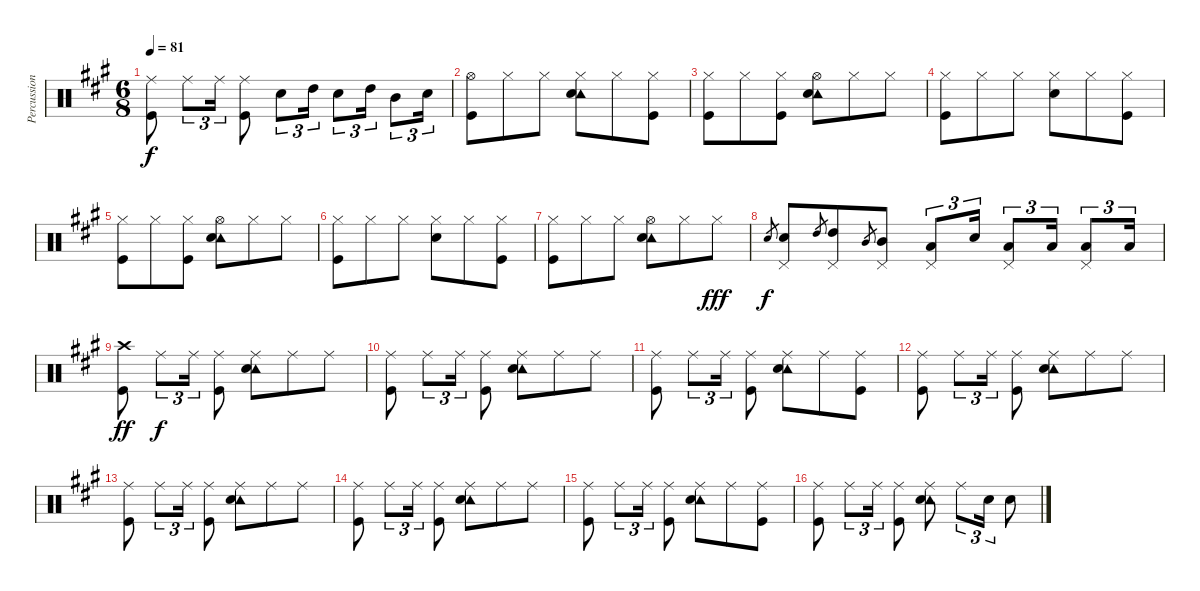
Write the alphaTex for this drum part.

\track ("Percussion" "Percussion") {instrument percussion}
\staff {score}
\articulation defaults
\ts (6 8)
\tempo 81
\clef neutral
\ks a
("Ride (middle)" "Kick (hit)").8{dy f} "Ride (middle)".8{tu (3 2)} "Ride (middle)".16{tu (3 2)} ("Ride (middle)" "Kick (hit)").8 "Snare (hit) 2".8{tu (3 2)} "High Tom (hit)".16{tu (3 2)} "Snare (hit) 2".8{tu (3 2)} "High Tom (hit)".16{tu (3 2)} "Mid Tom (hit)".8{tu (3 2)} "Snare (hit) 2".16{tu (3 2)} |
("Hi-Hat (open)" "Kick (hit)").8 "Hi-Hat (closed)".8 "Hi-Hat (closed)".8 ("Hi-Hat (closed)" "Tambourine (hit)" "Snare (hit) 2").8 "Hi-Hat (closed)".8 ("Hi-Hat (closed)" "Kick (hit)").8 |
("Hi-Hat (closed)" "Kick (hit)").8 "Hi-Hat (closed)".8 ("Hi-Hat (closed)" "Kick (hit)").8 ("Hi-Hat (open)" "Tambourine (hit)" "Snare (hit) 2").8 "Hi-Hat (closed)".8 "Hi-Hat (closed)".8 |
("Hi-Hat (closed)" "Kick (hit)").8 "Hi-Hat (closed)".8 "Hi-Hat (closed)".8 ("Hi-Hat (closed)" "Snare (hit) 2").8 "Hi-Hat (closed)".8 ("Hi-Hat (closed)" "Kick (hit)").8 |
("Hi-Hat (closed)" "Kick (hit)").8 "Hi-Hat (closed)".8 ("Hi-Hat (closed)" "Kick (hit)").8 ("Hi-Hat (open)" "Tambourine (hit)" "Snare (hit) 2").8 "Hi-Hat (closed)".8 "Hi-Hat (closed)".8 |
("Hi-Hat (closed)" "Kick (hit)").8 "Hi-Hat (closed)".8 "Hi-Hat (closed)".8 ("Hi-Hat (closed)" "Snare (hit) 2").8 "Hi-Hat (closed)".8 ("Hi-Hat (closed)" "Kick (hit)").8 |
("Hi-Hat (closed)" "Kick (hit)").8 "Hi-Hat (closed)".8 "Hi-Hat (closed)".8 ("Hi-Hat (open)" "Tambourine (hit)" "Snare (hit) 2").8 "Hi-Hat (closed)".8 "Hi-Hat (closed)".8{dy fff} |
"Snare (hit) 2".8{gr dy f} ("Pedal Hi-Hat (hit)" "Snare (hit) 2").8 "High Tom (hit)".8{gr} ("Pedal Hi-Hat (hit)" "High Tom (hit)").8 "Mid Tom (hit)".8{gr} ("Pedal Hi-Hat (hit)" "Mid Tom (hit)").8 ("Pedal Hi-Hat (hit)" "Low Tom (hit)").8{tu (3 2)} "Snare (hit) 2".16{tu (3 2)} ("Pedal Hi-Hat (hit)" "Low Tom (hit)").8{tu (3 2)} "Low Tom (hit)".16{tu (3 2)} ("Pedal Hi-Hat (hit)" "Low Floor Tom (hit)").8{tu (3 2)} "Low Floor Tom (hit)".16{tu (3 2)} |
("Crash high (hit)" "Kick (hit)").8{dy ff} "Ride (middle)".8{tu (3 2) dy f} "Ride (middle)".16{tu (3 2)} ("Ride (middle)" "Kick (hit)").8 ("Ride (middle)" "Tambourine (hit)" "Snare (hit) 2").8 "Ride (middle)".8 "Ride (middle)".8 |
("Ride (middle)" "Kick (hit)").8 "Ride (middle)".8{tu (3 2)} "Ride (middle)".16{tu (3 2)} ("Ride (middle)" "Kick (hit)").8 ("Ride (middle)" "Tambourine (hit)" "Snare (hit) 2").8 "Ride (middle)".8 "Ride (middle)".8 |
("Ride (middle)" "Kick (hit)").8 "Ride (middle)".8{tu (3 2)} "Ride (middle)".16{tu (3 2)} ("Ride (middle)" "Kick (hit)").8 ("Ride (middle)" "Tambourine (hit)" "Snare (hit) 2").8 "Ride (middle)".8 ("Ride (middle)" "Kick (hit)").8 |
("Ride (middle)" "Kick (hit)").8 "Ride (middle)".8{tu (3 2)} "Ride (middle)".16{tu (3 2)} ("Ride (middle)" "Kick (hit)").8 ("Ride (middle)" "Tambourine (hit)" "Snare (hit) 2").8 "Ride (middle)".8 "Ride (middle)".8 |
("Ride (middle)" "Kick (hit)").8 "Ride (middle)".8{tu (3 2)} "Ride (middle)".16{tu (3 2)} ("Ride (middle)" "Kick (hit)").8 ("Ride (middle)" "Tambourine (hit)" "Snare (hit) 2").8 "Ride (middle)".8 "Ride (middle)".8 |
("Ride (middle)" "Kick (hit)").8 "Ride (middle)".8{tu (3 2)} "Ride (middle)".16{tu (3 2)} ("Ride (middle)" "Kick (hit)").8 ("Ride (middle)" "Tambourine (hit)" "Snare (hit) 2").8 "Ride (middle)".8 "Ride (middle)".8 |
("Ride (middle)" "Kick (hit)").8 "Ride (middle)".8{tu (3 2)} "Ride (middle)".16{tu (3 2)} ("Ride (middle)" "Kick (hit)").8 ("Ride (middle)" "Tambourine (hit)" "Snare (hit) 2").8 "Ride (middle)".8 ("Ride (middle)" "Kick (hit)").8 |
("Ride (middle)" "Kick (hit)").8 "Ride (middle)".8{tu (3 2)} "Ride (middle)".16{tu (3 2)} ("Ride (middle)" "Kick (hit)").8 ("Ride (middle)" "Tambourine (hit)" "Snare (hit) 2").8 "Ride (middle)".8{tu (3 2)} "Snare (hit) 2".16{tu (3 2)} "Snare (hit) 2".8
